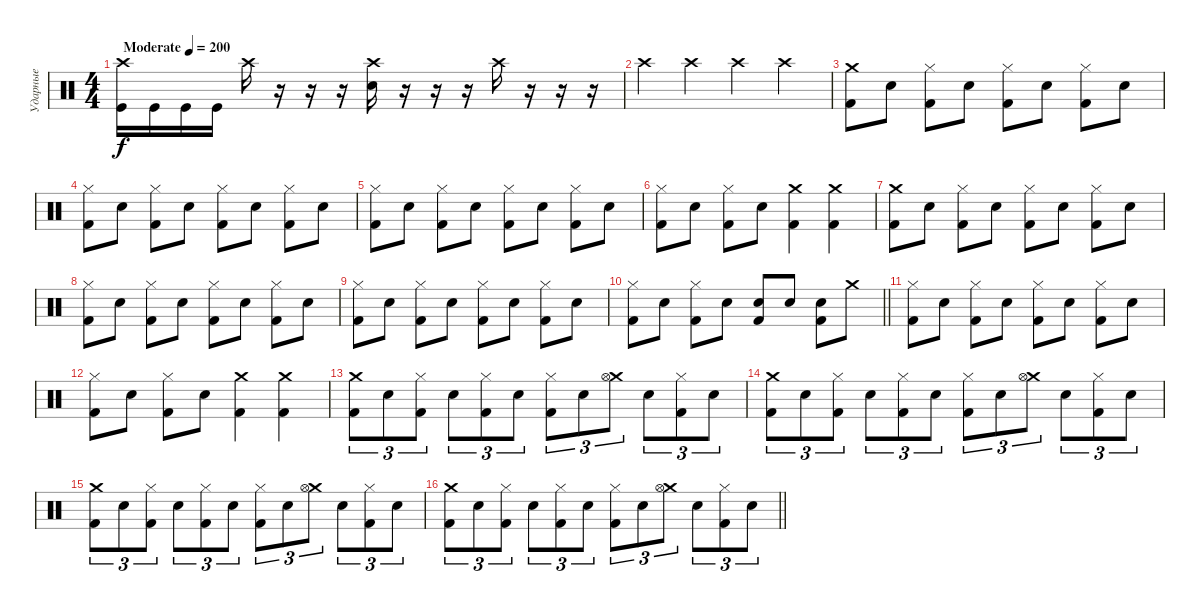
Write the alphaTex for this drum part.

\track ("Ударные" "Ударные") {instrument percussion}
\staff {score}
\articulation defaults
\ts (4 4)
\tempo (200 "Moderate")
\clef neutral
\ks c
("Crash high (hit)" "Kick (hit)").16{dy f} "Kick (hit)".16 "Kick (hit)".16 "Kick (hit)".16 "Crash high (hit)".16 r.16 r.16 r.16 ("Crash high (hit)" "Snare (hit) 2").16 r.16 r.16 r.16 "Crash high (hit)".16 r.16 r.16 r.16 |
"Crash high (hit)".4 "Crash high (hit)".4 "Crash high (hit)".4 "Crash high (hit)".4 |
("Crash medium (hit)" "Kick (hit) 2").8 "Snare (hit) 2".8 ("Hi-Hat (closed)" "Kick (hit) 2").8 "Snare (hit) 2".8 ("Hi-Hat (closed)" "Kick (hit) 2").8 "Snare (hit) 2".8 ("Hi-Hat (closed)" "Kick (hit) 2").8 "Snare (hit) 2".8 |
("Hi-Hat (closed)" "Kick (hit) 2").8 "Snare (hit) 2".8 ("Hi-Hat (closed)" "Kick (hit) 2").8 "Snare (hit) 2".8 ("Hi-Hat (closed)" "Kick (hit) 2").8 "Snare (hit) 2".8 ("Hi-Hat (closed)" "Kick (hit) 2").8 "Snare (hit) 2".8 |
("Hi-Hat (closed)" "Kick (hit) 2").8 "Snare (hit) 2".8 ("Hi-Hat (closed)" "Kick (hit) 2").8 "Snare (hit) 2".8 ("Hi-Hat (closed)" "Kick (hit) 2").8 "Snare (hit) 2".8 ("Hi-Hat (closed)" "Kick (hit) 2").8 "Snare (hit) 2".8 |
("Hi-Hat (closed)" "Kick (hit) 2").8 "Snare (hit) 2".8 ("Hi-Hat (closed)" "Kick (hit) 2").8 "Snare (hit) 2".8 ("Crash medium (hit)" "Kick (hit) 2").4 ("Crash medium (hit)" "Kick (hit) 2").4 |
("Crash medium (hit)" "Kick (hit) 2").8 "Snare (hit) 2".8 ("Hi-Hat (closed)" "Kick (hit) 2").8 "Snare (hit) 2".8 ("Hi-Hat (closed)" "Kick (hit) 2").8 "Snare (hit) 2".8 ("Hi-Hat (closed)" "Kick (hit) 2").8 "Snare (hit) 2".8 |
("Hi-Hat (closed)" "Kick (hit) 2").8 "Snare (hit) 2".8 ("Hi-Hat (closed)" "Kick (hit) 2").8 "Snare (hit) 2".8 ("Hi-Hat (closed)" "Kick (hit) 2").8 "Snare (hit) 2".8 ("Hi-Hat (closed)" "Kick (hit) 2").8 "Snare (hit) 2".8 |
("Hi-Hat (closed)" "Kick (hit) 2").8 "Snare (hit) 2".8 ("Hi-Hat (closed)" "Kick (hit) 2").8 "Snare (hit) 2".8 ("Hi-Hat (closed)" "Kick (hit) 2").8 "Snare (hit) 2".8 ("Hi-Hat (closed)" "Kick (hit) 2").8 "Snare (hit) 2".8 |
\barLineRight lightlight
("Hi-Hat (closed)" "Kick (hit) 2").8 "Snare (hit) 2".8 ("Hi-Hat (closed)" "Kick (hit) 2").8 "Snare (hit) 2".8 ("Snare (hit) 2" "Kick (hit) 2").8 "Snare (hit) 2".8 ("Snare (hit) 2" "Kick (hit) 2").8 "Crash medium (hit)".8 |
("Hi-Hat (closed)" "Kick (hit) 2").8 "Snare (hit) 2".8 ("Hi-Hat (closed)" "Kick (hit) 2").8 "Snare (hit) 2".8 ("Hi-Hat (closed)" "Kick (hit) 2").8 "Snare (hit) 2".8 ("Hi-Hat (closed)" "Kick (hit) 2").8 "Snare (hit) 2".8 |
("Hi-Hat (closed)" "Kick (hit) 2").8 "Snare (hit) 2".8 ("Hi-Hat (closed)" "Kick (hit) 2").8 "Snare (hit) 2".8 ("Crash medium (hit)" "Kick (hit) 2").4 ("Crash medium (hit)" "Kick (hit) 2").4 |
("Crash medium (hit)" "Kick (hit) 2").8{tu (3 2)} "Snare (hit) 2".8{tu (3 2)} ("Hi-Hat (closed)" "Kick (hit) 2").8{tu (3 2)} "Snare (hit) 2".8{tu (3 2)} ("Hi-Hat (closed)" "Kick (hit) 2").8{tu (3 2)} "Snare (hit) 2".8{tu (3 2)} ("Hi-Hat (closed)" "Kick (hit) 2").8{tu (3 2)} "Snare (hit) 2".8{tu (3 2)} ("Crash medium (hit)" "Hi-Hat (open)").8{tu (3 2)} "Snare (hit) 2".8{tu (3 2)} ("Hi-Hat (closed)" "Kick (hit) 2").8{tu (3 2)} "Snare (hit) 2".8{tu (3 2)} |
("Crash medium (hit)" "Kick (hit) 2").8{tu (3 2)} "Snare (hit) 2".8{tu (3 2)} ("Hi-Hat (closed)" "Kick (hit) 2").8{tu (3 2)} "Snare (hit) 2".8{tu (3 2)} ("Hi-Hat (closed)" "Kick (hit) 2").8{tu (3 2)} "Snare (hit) 2".8{tu (3 2)} ("Hi-Hat (closed)" "Kick (hit) 2").8{tu (3 2)} "Snare (hit) 2".8{tu (3 2)} ("Crash medium (hit)" "Hi-Hat (open)").8{tu (3 2)} "Snare (hit) 2".8{tu (3 2)} ("Hi-Hat (closed)" "Kick (hit) 2").8{tu (3 2)} "Snare (hit) 2".8{tu (3 2)} |
("Crash medium (hit)" "Kick (hit) 2").8{tu (3 2)} "Snare (hit) 2".8{tu (3 2)} ("Hi-Hat (closed)" "Kick (hit) 2").8{tu (3 2)} "Snare (hit) 2".8{tu (3 2)} ("Hi-Hat (closed)" "Kick (hit) 2").8{tu (3 2)} "Snare (hit) 2".8{tu (3 2)} ("Hi-Hat (closed)" "Kick (hit) 2").8{tu (3 2)} "Snare (hit) 2".8{tu (3 2)} ("Crash medium (hit)" "Hi-Hat (open)").8{tu (3 2)} "Snare (hit) 2".8{tu (3 2)} ("Hi-Hat (closed)" "Kick (hit) 2").8{tu (3 2)} "Snare (hit) 2".8{tu (3 2)} |
\barLineRight lightlight
("Crash medium (hit)" "Kick (hit) 2").8{tu (3 2)} "Snare (hit) 2".8{tu (3 2)} ("Hi-Hat (closed)" "Kick (hit) 2").8{tu (3 2)} "Snare (hit) 2".8{tu (3 2)} ("Hi-Hat (closed)" "Kick (hit) 2").8{tu (3 2)} "Snare (hit) 2".8{tu (3 2)} ("Hi-Hat (closed)" "Kick (hit) 2").8{tu (3 2)} "Snare (hit) 2".8{tu (3 2)} ("Crash medium (hit)" "Hi-Hat (open)").8{tu (3 2)} "Snare (hit) 2".8{tu (3 2)} ("Hi-Hat (closed)" "Kick (hit) 2").8{tu (3 2)} "Snare (hit) 2".8{tu (3 2)}
